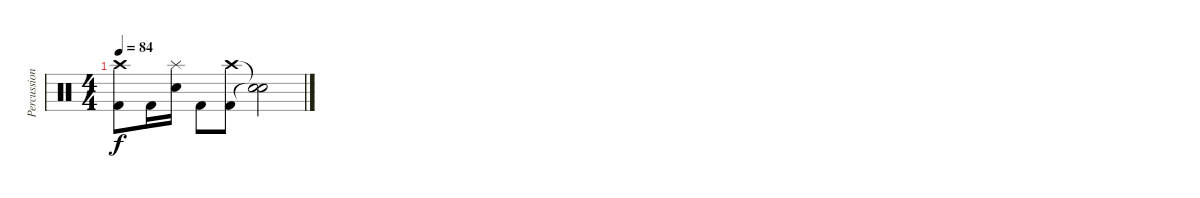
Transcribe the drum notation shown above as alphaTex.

\track ("Percussion" "Percussion") {instrument percussion}
\staff {score}
\articulation defaults
\ts (4 4)
\tempo 84
\clef neutral
\ks c
("Crash high (hit)" "Kick (hit) 2").8{dy f} "Kick (hit) 2".16 ("Splash (hit)" "Electric Snare (hit)").16 "Kick (hit) 2".8 ("Crash high (hit)" "Kick (hit) 2").8 ("Snare (hit)"{t} "Snare (hit)"{t}).2
